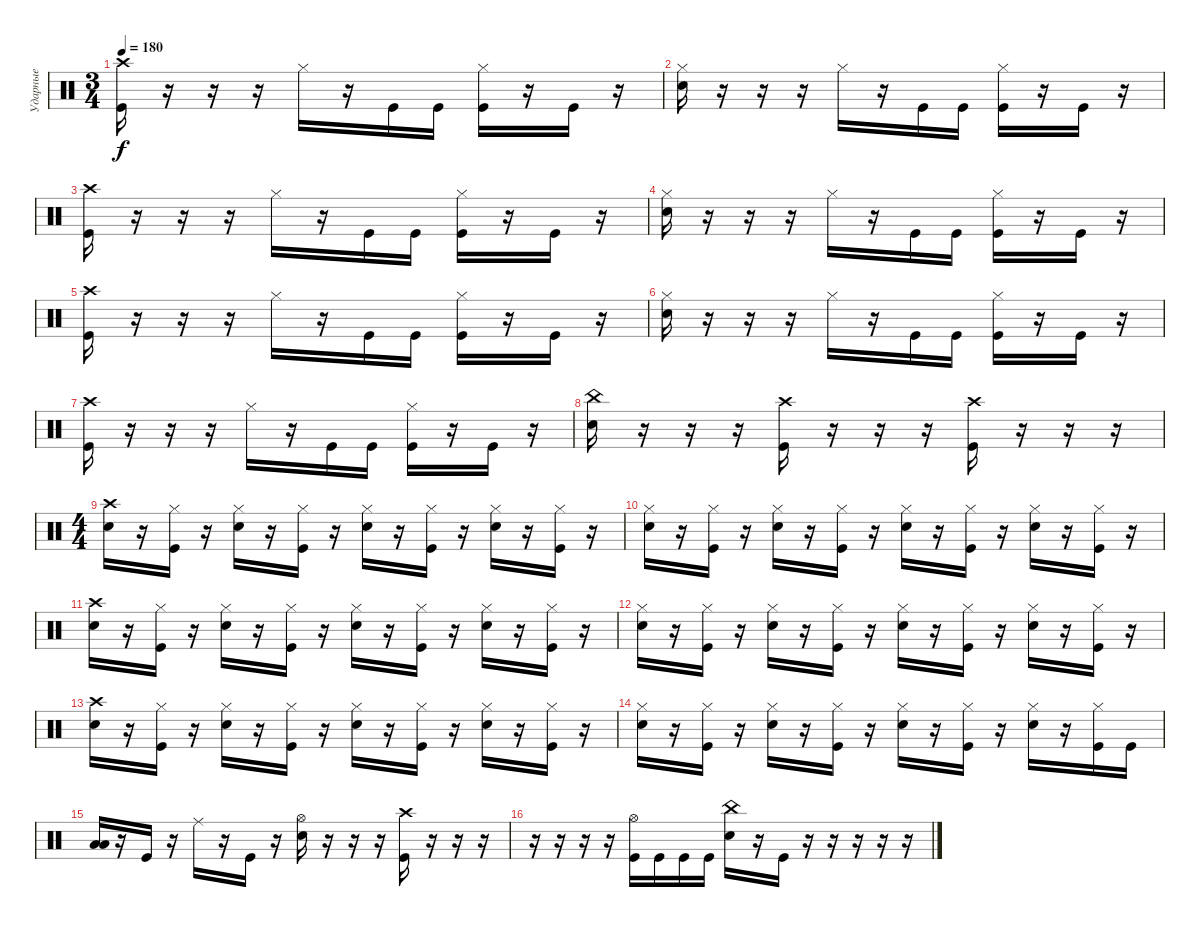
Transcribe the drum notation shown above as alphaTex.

\track ("Ударные" "Ударные") {instrument percussion}
\staff {score}
\articulation defaults
\ts (3 4)
\tempo 180
\clef neutral
\ks c
("Crash high (hit)" "Kick (hit)").16{dy f} r.16 r.16 r.16 "Hi-Hat (closed)".16 r.16 "Kick (hit)".16 "Kick (hit)".16 ("Hi-Hat (closed)" "Kick (hit)").16 r.16 "Kick (hit)".16 r.16 |
("Hi-Hat (closed)" "Electric Snare (hit)").16 r.16 r.16 r.16 "Hi-Hat (closed)".16 r.16 "Kick (hit)".16 "Kick (hit)".16 ("Hi-Hat (closed)" "Kick (hit)").16 r.16 "Kick (hit)".16 r.16 |
("Crash high (hit)" "Kick (hit)").16 r.16 r.16 r.16 "Hi-Hat (closed)".16 r.16 "Kick (hit)".16 "Kick (hit)".16 ("Hi-Hat (closed)" "Kick (hit)").16 r.16 "Kick (hit)".16 r.16 |
("Hi-Hat (closed)" "Electric Snare (hit)").16 r.16 r.16 r.16 "Hi-Hat (closed)".16 r.16 "Kick (hit)".16 "Kick (hit)".16 ("Hi-Hat (closed)" "Kick (hit)").16 r.16 "Kick (hit)".16 r.16 |
("Crash high (hit)" "Kick (hit)").16 r.16 r.16 r.16 "Hi-Hat (closed)".16 r.16 "Kick (hit)".16 "Kick (hit)".16 ("Hi-Hat (closed)" "Kick (hit)").16 r.16 "Kick (hit)".16 r.16 |
("Hi-Hat (closed)" "Electric Snare (hit)").16 r.16 r.16 r.16 "Hi-Hat (closed)".16 r.16 "Kick (hit)".16 "Kick (hit)".16 ("Hi-Hat (closed)" "Kick (hit)").16 r.16 "Kick (hit)".16 r.16 |
("Crash high (hit)" "Kick (hit)").16 r.16 r.16 r.16 "Hi-Hat (closed)".16 r.16 "Kick (hit)".16 "Kick (hit)".16 ("Hi-Hat (closed)" "Kick (hit)").16 r.16 "Kick (hit)".16 r.16 |
("China (hit)" "Electric Snare (hit)").16 r.16 r.16 r.16 ("Crash high (hit)" "Kick (hit)").16 r.16 r.16 r.16 ("Crash high (hit)" "Kick (hit)").16 r.16 r.16 r.16 |
\ts (4 4)
("Crash high (hit)" "Electric Snare (hit)").16 r.16 ("Hi-Hat (closed)" "Kick (hit)").16 r.16 ("Hi-Hat (closed)" "Electric Snare (hit)").16 r.16 ("Hi-Hat (closed)" "Kick (hit)").16 r.16 ("Hi-Hat (closed)" "Electric Snare (hit)").16 r.16 ("Hi-Hat (closed)" "Kick (hit)").16 r.16 ("Hi-Hat (closed)" "Electric Snare (hit)").16 r.16 ("Hi-Hat (closed)" "Kick (hit)").16 r.16 |
("Hi-Hat (closed)" "Electric Snare (hit)").16 r.16 ("Hi-Hat (closed)" "Kick (hit)").16 r.16 ("Hi-Hat (closed)" "Electric Snare (hit)").16 r.16 ("Hi-Hat (closed)" "Kick (hit)").16 r.16 ("Hi-Hat (closed)" "Electric Snare (hit)").16 r.16 ("Hi-Hat (closed)" "Kick (hit)").16 r.16 ("Hi-Hat (closed)" "Electric Snare (hit)").16 r.16 ("Hi-Hat (closed)" "Kick (hit)").16 r.16 |
("Crash high (hit)" "Electric Snare (hit)").16 r.16 ("Hi-Hat (closed)" "Kick (hit)").16 r.16 ("Hi-Hat (closed)" "Electric Snare (hit)").16 r.16 ("Hi-Hat (closed)" "Kick (hit)").16 r.16 ("Hi-Hat (closed)" "Electric Snare (hit)").16 r.16 ("Hi-Hat (closed)" "Kick (hit)").16 r.16 ("Hi-Hat (closed)" "Electric Snare (hit)").16 r.16 ("Hi-Hat (closed)" "Kick (hit)").16 r.16 |
("Hi-Hat (closed)" "Electric Snare (hit)").16 r.16 ("Hi-Hat (closed)" "Kick (hit)").16 r.16 ("Hi-Hat (closed)" "Electric Snare (hit)").16 r.16 ("Hi-Hat (closed)" "Kick (hit)").16 r.16 ("Hi-Hat (closed)" "Electric Snare (hit)").16 r.16 ("Hi-Hat (closed)" "Kick (hit)").16 r.16 ("Hi-Hat (closed)" "Electric Snare (hit)").16 r.16 ("Hi-Hat (closed)" "Kick (hit)").16 r.16 |
("Crash high (hit)" "Electric Snare (hit)").16 r.16 ("Hi-Hat (closed)" "Kick (hit)").16 r.16 ("Hi-Hat (closed)" "Electric Snare (hit)").16 r.16 ("Hi-Hat (closed)" "Kick (hit)").16 r.16 ("Hi-Hat (closed)" "Electric Snare (hit)").16 r.16 ("Hi-Hat (closed)" "Kick (hit)").16 r.16 ("Hi-Hat (closed)" "Electric Snare (hit)").16 r.16 ("Hi-Hat (closed)" "Kick (hit)").16 r.16 |
("Hi-Hat (closed)" "Electric Snare (hit)").16 r.16 ("Hi-Hat (closed)" "Kick (hit)").16 r.16 ("Hi-Hat (closed)" "Electric Snare (hit)").16 r.16 ("Hi-Hat (closed)" "Kick (hit)").16 r.16 ("Hi-Hat (closed)" "Electric Snare (hit)").16 r.16 ("Hi-Hat (closed)" "Kick (hit)").16 r.16 ("Hi-Hat (closed)" "Electric Snare (hit)").16 r.16 ("Hi-Hat (closed)" "Kick (hit)").16 "Kick (hit)".16 |
("Low Floor Tom (hit)" "Low Tom (hit)").16 r.16 "Kick (hit)".16 r.16 "Ride (middle)".16 r.16 "Kick (hit)".16 r.16 ("Hi-Hat (open)" "Electric Snare (hit)").16 r.16 r.16 r.16 ("Kick (hit)" "Crash high (hit)").16 r.16 r.16 r.16 |
r.16 r.16 r.16 r.16 ("Hi-Hat (open)" "Kick (hit)").16 "Kick (hit)".16 "Kick (hit)".16 "Kick (hit)".16 ("China (hit)" "Electric Snare (hit)").16 r.16 "Kick (hit)".16 r.16 r.16 r.16 r.16 r.16
